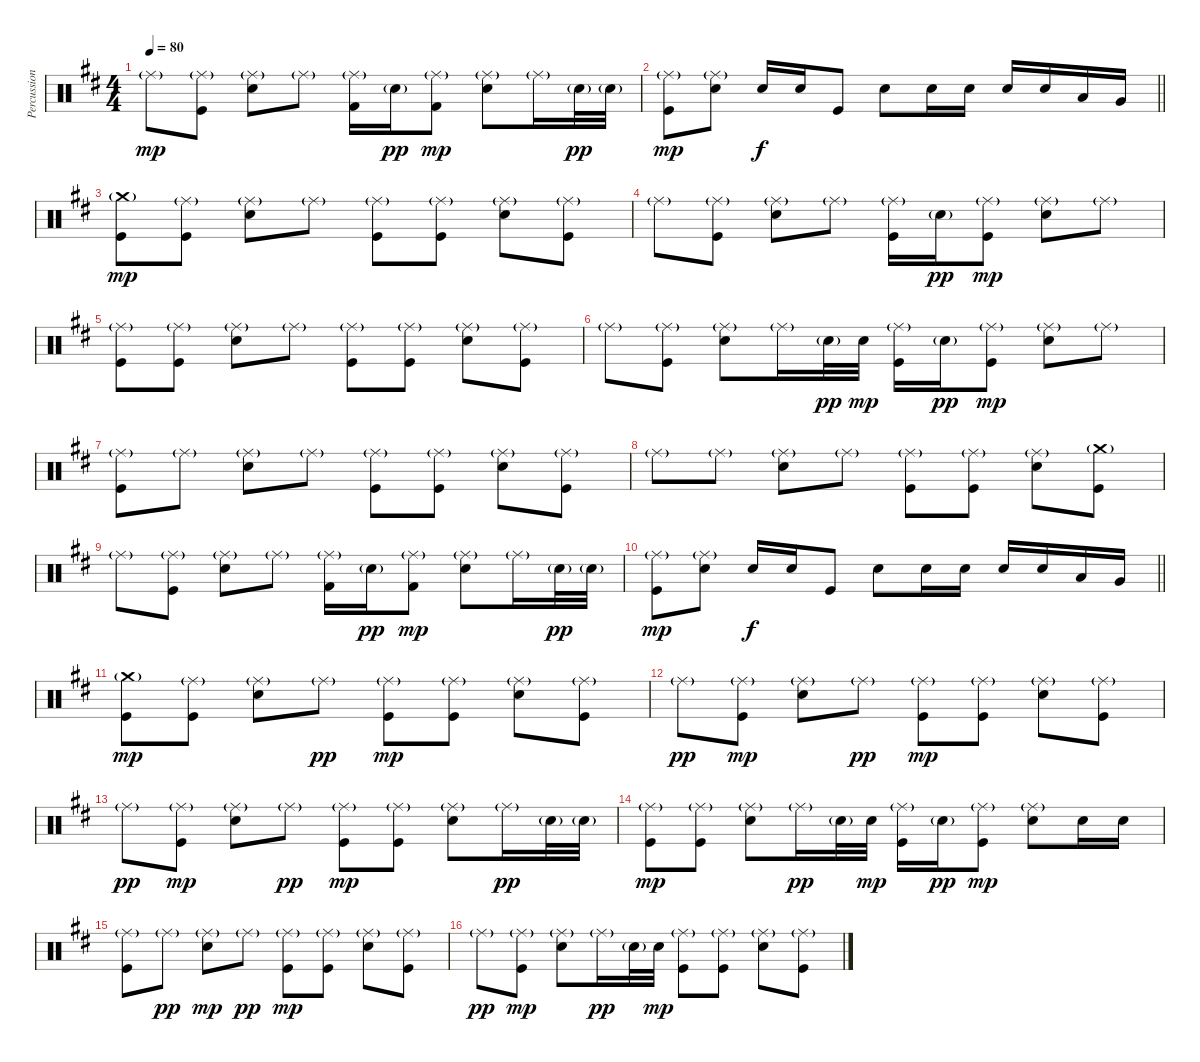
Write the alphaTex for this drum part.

\track ("Percussion" "Percussion") {instrument percussion}
\staff {score}
\articulation defaults
\ts (4 4)
\tempo 80
\clef neutral
\ks d "Ride (middle)"{g}.8{dy mp}
("Ride (middle)"{g} "Kick (hit)").8 ("Ride (middle)"{g} "Snare (hit) 2").8 "Ride (middle)"{g}.8 ("Ride (middle)"{g} "Kick (hit) 2").16 "Snare (hit) 2"{g}.16{dy pp} ("Ride (middle)"{g} "Kick (hit) 2").8{dy mp} ("Ride (middle)"{g} "Snare (hit) 2").8 "Ride (middle)"{g}.16 "Snare (hit) 2"{g}.32{dy pp} "Snare (hit) 2"{g}.32 |
\barLineRight lightlight
("Ride (middle)"{g} "Kick (hit)").8{dy mp} ("Ride (middle)"{g} "Snare (hit) 2").8 "Snare (hit) 2".16{dy f} "Snare (hit) 2".16 "Kick (hit)".8 "Snare (hit) 2".8 "Snare (hit) 2".16 "Snare (hit) 2".16 "Snare (hit) 2".16 "Snare (hit) 2".16 "Low Tom (hit)".16 "Very Low Tom (hit)".16 |
("Crash medium (hit)"{g} "Kick (hit)").8{dy mp} ("Ride (middle)"{g} "Kick (hit)").8 ("Ride (middle)"{g} "Snare (hit) 2").8 "Ride (middle)"{g}.8 ("Ride (middle)"{g} "Kick (hit)").8 ("Ride (middle)"{g} "Kick (hit)").8 ("Ride (middle)"{g} "Snare (hit) 2").8 ("Ride (middle)"{g} "Kick (hit)").8 |
"Ride (middle)"{g}.8 ("Ride (middle)"{g} "Kick (hit)").8 ("Ride (middle)"{g} "Snare (hit) 2").8 "Ride (middle)"{g}.8 ("Ride (middle)"{g} "Kick (hit)").16 "Snare (hit) 2"{g}.16{dy pp} ("Ride (middle)"{g} "Kick (hit)").8{dy mp} ("Ride (middle)"{g} "Snare (hit) 2").8 "Ride (middle)"{g}.8 |
("Ride (middle)"{g} "Kick (hit)").8 ("Ride (middle)"{g} "Kick (hit)").8 ("Ride (middle)"{g} "Snare (hit) 2").8 "Ride (middle)"{g}.8 ("Ride (middle)"{g} "Kick (hit)").8 ("Ride (middle)"{g} "Kick (hit)").8 ("Ride (middle)"{g} "Snare (hit) 2").8 ("Ride (middle)"{g} "Kick (hit)").8 |
"Ride (middle)"{g}.8 ("Ride (middle)"{g} "Kick (hit)").8 ("Ride (middle)"{g} "Snare (hit) 2").8 "Ride (middle)"{g}.16 "Snare (hit) 2"{g}.32{dy pp} "Snare (hit) 2".32{dy mp} ("Ride (middle)"{g} "Kick (hit)").16 "Snare (hit) 2"{g}.16{dy pp} ("Ride (middle)"{g} "Kick (hit)").8{dy mp} ("Ride (middle)"{g} "Snare (hit) 2").8 "Ride (middle)"{g}.8 |
("Ride (middle)"{g} "Kick (hit)").8 "Ride (middle)"{g}.8 ("Ride (middle)"{g} "Snare (hit) 2").8 "Ride (middle)"{g}.8 ("Ride (middle)"{g} "Kick (hit)").8 ("Ride (middle)"{g} "Kick (hit)").8 ("Ride (middle)"{g} "Snare (hit) 2").8 ("Ride (middle)"{g} "Kick (hit)").8 |
"Ride (middle)"{g}.8 "Ride (middle)"{g}.8 ("Ride (middle)"{g} "Snare (hit) 2").8 "Ride (middle)"{g}.8 ("Ride (middle)"{g} "Kick (hit)").8 ("Ride (middle)"{g} "Kick (hit)").8 ("Ride (middle)"{g} "Snare (hit) 2").8 ("Crash medium (hit)"{g} "Kick (hit)").8 |
"Ride (middle)"{g}.8 ("Ride (middle)"{g} "Kick (hit)").8 ("Ride (middle)"{g} "Snare (hit) 2").8 "Ride (middle)"{g}.8 ("Ride (middle)"{g} "Kick (hit) 2").16 "Snare (hit) 2"{g}.16{dy pp} ("Ride (middle)"{g} "Kick (hit) 2").8{dy mp} ("Ride (middle)"{g} "Snare (hit) 2").8 "Ride (middle)"{g}.16 "Snare (hit) 2"{g}.32{dy pp} "Snare (hit) 2"{g}.32 |
\barLineRight lightlight
("Ride (middle)"{g} "Kick (hit)").8{dy mp} ("Ride (middle)"{g} "Snare (hit) 2").8 "Snare (hit) 2".16{dy f} "Snare (hit) 2".16 "Kick (hit)".8 "Snare (hit) 2".8 "Snare (hit) 2".16 "Snare (hit) 2".16 "Snare (hit) 2".16 "Snare (hit) 2".16 "Low Tom (hit)".16 "Very Low Tom (hit)".16 |
("Crash medium (hit)"{g} "Kick (hit)").8{dy mp} ("Ride (middle)"{g} "Kick (hit)").8 ("Ride (middle)"{g} "Snare (hit) 2").8 "Ride (middle)"{g}.8{dy pp} ("Ride (middle)"{g} "Kick (hit)").8{dy mp} ("Ride (middle)"{g} "Kick (hit)").8 ("Ride (middle)"{g} "Snare (hit) 2").8 ("Ride (middle)"{g} "Kick (hit)").8 |
"Ride (middle)"{g}.8{dy pp} ("Ride (middle)"{g} "Kick (hit)").8{dy mp} ("Ride (middle)"{g} "Snare (hit) 2").8 "Ride (middle)"{g}.8{dy pp} ("Ride (middle)"{g} "Kick (hit)").8{dy mp} ("Ride (middle)"{g} "Kick (hit)").8 ("Ride (middle)"{g} "Snare (hit) 2").8 ("Ride (middle)"{g} "Kick (hit)").8 |
"Ride (middle)"{g}.8{dy pp} ("Ride (middle)"{g} "Kick (hit)").8{dy mp} ("Ride (middle)"{g} "Snare (hit) 2").8 "Ride (middle)"{g}.8{dy pp} ("Ride (middle)"{g} "Kick (hit)").8{dy mp} ("Ride (middle)"{g} "Kick (hit)").8 ("Ride (middle)"{g} "Snare (hit) 2").8 "Ride (middle)"{g}.16{dy pp} "Snare (hit) 2"{g}.32 "Snare (hit) 2"{g}.32 |
("Ride (middle)"{g} "Kick (hit)").8{dy mp} ("Ride (middle)"{g} "Kick (hit)").8 ("Ride (middle)"{g} "Snare (hit) 2").8 "Ride (middle)"{g}.16{dy pp} "Snare (hit) 2"{g}.32 "Snare (hit) 2".32{dy mp} ("Ride (middle)"{g} "Kick (hit)").16 "Snare (hit) 2"{g}.16{dy pp} ("Ride (middle)"{g} "Kick (hit)").8{dy mp} ("Ride (middle)"{g} "Snare (hit) 2").8 "Snare (hit) 2".16 "Snare (hit) 2".16 |
("Ride (middle)"{g} "Kick (hit)").8 "Ride (middle)"{g}.8{dy pp} ("Ride (middle)"{g} "Snare (hit) 2").8{dy mp} "Ride (middle)"{g}.8{dy pp} ("Ride (middle)"{g} "Kick (hit)").8{dy mp} ("Ride (middle)"{g} "Kick (hit)").8 ("Ride (middle)"{g} "Snare (hit) 2").8 ("Ride (middle)"{g} "Kick (hit)").8 |
"Ride (middle)"{g}.8{dy pp} ("Ride (middle)"{g} "Kick (hit)").8{dy mp} ("Ride (middle)"{g} "Snare (hit) 2").8 "Ride (middle)"{g}.16{dy pp} "Snare (hit) 2"{g}.32 "Snare (hit) 2".32{dy mp} ("Ride (middle)"{g} "Kick (hit)").8 ("Ride (middle)"{g} "Kick (hit)").8 ("Ride (middle)"{g} "Snare (hit) 2").8 ("Ride (middle)"{g} "Kick (hit)").8
